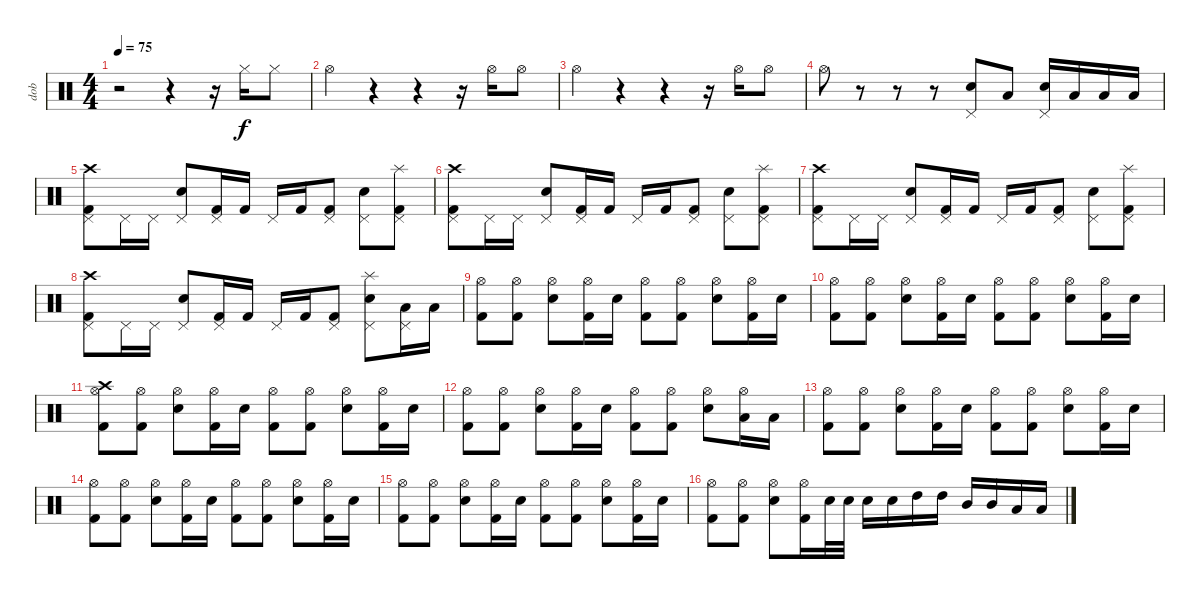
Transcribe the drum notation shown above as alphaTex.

\track ("dob" "dob") {instrument percussion}
\staff {score}
\articulation defaults
\ts (4 4)
\tempo 75
\clef neutral
\ks c
r.2{dy f} r.4 r.16 "Hi-Hat (closed)".16 "Hi-Hat (closed)".8 |
"Hi-Hat (open)".4 r.4 r.4 r.16 "Hi-Hat (open)".16 "Hi-Hat (open)".8 |
"Hi-Hat (open)".4 r.4 r.4 r.16 "Hi-Hat (open)".16 "Hi-Hat (open)".8 |
"Hi-Hat (open)".8 r.8 r.8 r.8 ("Snare (hit) 2" "Pedal Hi-Hat (hit)").8 "Low Tom (hit)".8 ("Snare (hit) 2" "Pedal Hi-Hat (hit)").16 "Low Tom (hit)".16 "Low Tom (hit)".16 "Low Tom (hit)".16 |
("Kick (hit) 2" "Pedal Hi-Hat (hit)" "Crash high (hit)").8 "Pedal Hi-Hat (hit)".16 "Pedal Hi-Hat (hit)".16 ("Snare (hit) 2" "Pedal Hi-Hat (hit)").8 ("Kick (hit) 2" "Pedal Hi-Hat (hit)").16 "Kick (hit) 2".16 "Pedal Hi-Hat (hit)".16 "Kick (hit) 2".16 ("Kick (hit) 2" "Pedal Hi-Hat (hit)").8 ("Snare (hit) 2" "Pedal Hi-Hat (hit)").8 ("Kick (hit) 2" "Pedal Hi-Hat (hit)" "Splash (hit)").8 |
("Kick (hit) 2" "Pedal Hi-Hat (hit)" "Crash high (hit)").8 "Pedal Hi-Hat (hit)".16 "Pedal Hi-Hat (hit)".16 ("Snare (hit) 2" "Pedal Hi-Hat (hit)").8 ("Kick (hit) 2" "Pedal Hi-Hat (hit)").16 "Kick (hit) 2".16 "Pedal Hi-Hat (hit)".16 "Kick (hit) 2".16 ("Kick (hit) 2" "Pedal Hi-Hat (hit)").8 ("Snare (hit) 2" "Pedal Hi-Hat (hit)").8 ("Kick (hit) 2" "Pedal Hi-Hat (hit)" "Splash (hit)").8 |
("Kick (hit) 2" "Pedal Hi-Hat (hit)" "Crash high (hit)").8 "Pedal Hi-Hat (hit)".16 "Pedal Hi-Hat (hit)".16 ("Snare (hit) 2" "Pedal Hi-Hat (hit)").8 ("Kick (hit) 2" "Pedal Hi-Hat (hit)").16 "Kick (hit) 2".16 "Pedal Hi-Hat (hit)".16 "Kick (hit) 2".16 ("Kick (hit) 2" "Pedal Hi-Hat (hit)").8 ("Snare (hit) 2" "Pedal Hi-Hat (hit)").8 ("Kick (hit) 2" "Pedal Hi-Hat (hit)" "Splash (hit)").8 |
("Kick (hit) 2" "Pedal Hi-Hat (hit)" "Crash high (hit)").8 "Pedal Hi-Hat (hit)".16 "Pedal Hi-Hat (hit)".16 ("Snare (hit) 2" "Pedal Hi-Hat (hit)").8 ("Kick (hit) 2" "Pedal Hi-Hat (hit)").16 "Kick (hit) 2".16 "Pedal Hi-Hat (hit)".16 "Kick (hit) 2".16 ("Kick (hit) 2" "Pedal Hi-Hat (hit)").8 ("Snare (hit) 2" "Pedal Hi-Hat (hit)" "Splash (hit)").8 ("Low Tom (hit)" "Pedal Hi-Hat (hit)").16 "Low Tom (hit)".16 |
("Kick (hit) 2" "Hi-Hat (open)").8 ("Kick (hit) 2" "Hi-Hat (open)").8 ("Snare (hit) 2" "Hi-Hat (open)").8 ("Kick (hit) 2" "Hi-Hat (open)").16 "Snare (hit) 2".16 ("Kick (hit) 2" "Hi-Hat (open)").8 ("Kick (hit) 2" "Hi-Hat (open)").8 ("Snare (hit) 2" "Hi-Hat (open)").8 ("Kick (hit) 2" "Hi-Hat (open)").16 "Snare (hit) 2".16 |
("Kick (hit) 2" "Hi-Hat (open)").8 ("Kick (hit) 2" "Hi-Hat (open)").8 ("Snare (hit) 2" "Hi-Hat (open)").8 ("Kick (hit) 2" "Hi-Hat (open)").16 "Snare (hit) 2".16 ("Kick (hit) 2" "Hi-Hat (open)").8 ("Kick (hit) 2" "Hi-Hat (open)").8 ("Snare (hit) 2" "Hi-Hat (open)").8 ("Kick (hit) 2" "Hi-Hat (open)").16 "Snare (hit) 2".16 |
("Kick (hit) 2" "Hi-Hat (open)" "Crash high (hit)").8 ("Kick (hit) 2" "Hi-Hat (open)").8 ("Snare (hit) 2" "Hi-Hat (open)").8 ("Kick (hit) 2" "Hi-Hat (open)").16 "Snare (hit) 2".16 ("Kick (hit) 2" "Hi-Hat (open)").8 ("Kick (hit) 2" "Hi-Hat (open)").8 ("Snare (hit) 2" "Hi-Hat (open)").8 ("Kick (hit) 2" "Hi-Hat (open)").16 "Snare (hit) 2".16 |
("Kick (hit) 2" "Hi-Hat (open)").8 ("Kick (hit) 2" "Hi-Hat (open)").8 ("Snare (hit) 2" "Hi-Hat (open)").8 ("Kick (hit) 2" "Hi-Hat (open)").16 "Snare (hit) 2".16 ("Kick (hit) 2" "Hi-Hat (open)").8 ("Kick (hit) 2" "Hi-Hat (open)").8 ("Snare (hit) 2" "Hi-Hat (open)").8 ("Low Tom (hit)" "Hi-Hat (open)").16 "Low Tom (hit)".16 |
("Kick (hit) 2" "Hi-Hat (open)").8 ("Kick (hit) 2" "Hi-Hat (open)").8 ("Snare (hit) 2" "Hi-Hat (open)").8 ("Kick (hit) 2" "Hi-Hat (open)").16 "Snare (hit) 2".16 ("Kick (hit) 2" "Hi-Hat (open)").8 ("Kick (hit) 2" "Hi-Hat (open)").8 ("Snare (hit) 2" "Hi-Hat (open)").8 ("Kick (hit) 2" "Hi-Hat (open)").16 "Snare (hit) 2".16 |
("Kick (hit) 2" "Hi-Hat (open)").8 ("Kick (hit) 2" "Hi-Hat (open)").8 ("Snare (hit) 2" "Hi-Hat (open)").8 ("Kick (hit) 2" "Hi-Hat (open)").16 "Snare (hit) 2".16 ("Kick (hit) 2" "Hi-Hat (open)").8 ("Kick (hit) 2" "Hi-Hat (open)").8 ("Snare (hit) 2" "Hi-Hat (open)").8 ("Kick (hit) 2" "Hi-Hat (open)").16 "Snare (hit) 2".16 |
("Kick (hit) 2" "Hi-Hat (open)").8 ("Kick (hit) 2" "Hi-Hat (open)").8 ("Snare (hit) 2" "Hi-Hat (open)").8 ("Kick (hit) 2" "Hi-Hat (open)").16 "Snare (hit) 2".16 ("Kick (hit) 2" "Hi-Hat (open)").8 ("Kick (hit) 2" "Hi-Hat (open)").8 ("Snare (hit) 2" "Hi-Hat (open)").8 ("Kick (hit) 2" "Hi-Hat (open)").16 "Snare (hit) 2".16 |
("Kick (hit) 2" "Hi-Hat (open)").8 ("Kick (hit) 2" "Hi-Hat (open)").8 ("Snare (hit) 2" "Hi-Hat (open)").8 ("Kick (hit) 2" "Hi-Hat (open)").16 "Snare (hit) 2".32 "Snare (hit) 2".32 "Snare (hit) 2".16 "Snare (hit) 2".16 "High Tom (hit)".16 "High Tom (hit)".16 "Mid Tom (hit)".16 "Mid Tom (hit)".16 "Low Tom (hit)".16 "Low Tom (hit)".16
